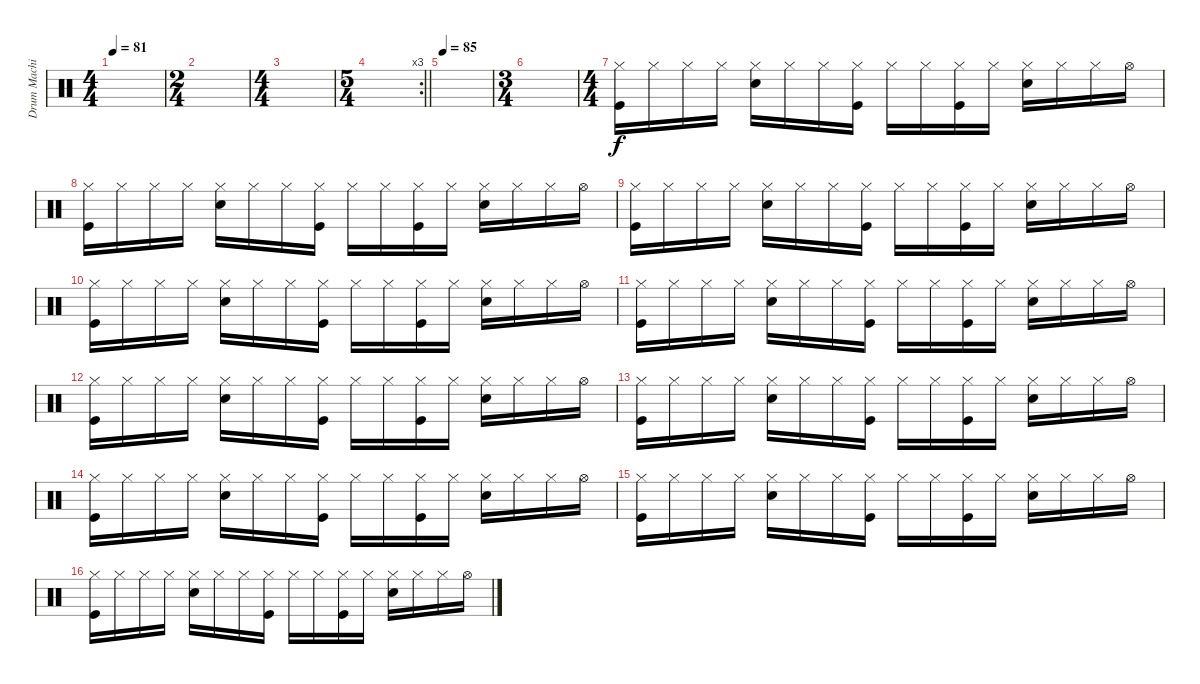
\track ("Drum Machine" "Drum Machi") {instrument percussion}
\staff {score}
\articulation defaults
\ts (4 4)
\tempo 81
\clef neutral
\ks c
|
\ts (2 4)
|
\ts (4 4)
|
\rc 3
\ts (5 4)
\barLineRight lightlight
|
\tempo 85
|
\ts (3 4)
|
\ts (4 4)
("Hi-Hat (closed)" "Kick (hit)").16 "Hi-Hat (closed)".16 "Hi-Hat (closed)".16 "Hi-Hat (closed)".16 ("Hi-Hat (closed)" "Snare (hit) 2").16 "Hi-Hat (closed)".16 "Hi-Hat (closed)".16 ("Hi-Hat (closed)" "Kick (hit)").16 "Hi-Hat (closed)".16 "Hi-Hat (closed)".16 ("Hi-Hat (closed)" "Kick (hit)").16 "Hi-Hat (closed)".16 ("Hi-Hat (closed)" "Snare (hit) 2").16 "Hi-Hat (closed)".16 "Hi-Hat (closed)".16 "Hi-Hat (open)".16 |
("Hi-Hat (closed)" "Kick (hit)").16 "Hi-Hat (closed)".16 "Hi-Hat (closed)".16 "Hi-Hat (closed)".16 ("Hi-Hat (closed)" "Snare (hit) 2").16 "Hi-Hat (closed)".16 "Hi-Hat (closed)".16 ("Hi-Hat (closed)" "Kick (hit)").16 "Hi-Hat (closed)".16 "Hi-Hat (closed)".16 ("Hi-Hat (closed)" "Kick (hit)").16 "Hi-Hat (closed)".16 ("Hi-Hat (closed)" "Snare (hit) 2").16 "Hi-Hat (closed)".16 "Hi-Hat (closed)".16 "Hi-Hat (open)".16 |
("Hi-Hat (closed)" "Kick (hit)").16 "Hi-Hat (closed)".16 "Hi-Hat (closed)".16 "Hi-Hat (closed)".16 ("Hi-Hat (closed)" "Snare (hit) 2").16 "Hi-Hat (closed)".16 "Hi-Hat (closed)".16 ("Hi-Hat (closed)" "Kick (hit)").16 "Hi-Hat (closed)".16 "Hi-Hat (closed)".16 ("Hi-Hat (closed)" "Kick (hit)").16 "Hi-Hat (closed)".16 ("Hi-Hat (closed)" "Snare (hit) 2").16 "Hi-Hat (closed)".16 "Hi-Hat (closed)".16 "Hi-Hat (open)".16 |
("Hi-Hat (closed)" "Kick (hit)").16 "Hi-Hat (closed)".16 "Hi-Hat (closed)".16 "Hi-Hat (closed)".16 ("Hi-Hat (closed)" "Snare (hit) 2").16 "Hi-Hat (closed)".16 "Hi-Hat (closed)".16 ("Hi-Hat (closed)" "Kick (hit)").16 "Hi-Hat (closed)".16 "Hi-Hat (closed)".16 ("Hi-Hat (closed)" "Kick (hit)").16 "Hi-Hat (closed)".16 ("Hi-Hat (closed)" "Snare (hit) 2").16 "Hi-Hat (closed)".16 "Hi-Hat (closed)".16 "Hi-Hat (open)".16 |
("Hi-Hat (closed)" "Kick (hit)").16 "Hi-Hat (closed)".16 "Hi-Hat (closed)".16 "Hi-Hat (closed)".16 ("Hi-Hat (closed)" "Snare (hit) 2").16 "Hi-Hat (closed)".16 "Hi-Hat (closed)".16 ("Hi-Hat (closed)" "Kick (hit)").16 "Hi-Hat (closed)".16 "Hi-Hat (closed)".16 ("Hi-Hat (closed)" "Kick (hit)").16 "Hi-Hat (closed)".16 ("Hi-Hat (closed)" "Snare (hit) 2").16 "Hi-Hat (closed)".16 "Hi-Hat (closed)".16 "Hi-Hat (open)".16 |
("Hi-Hat (closed)" "Kick (hit)").16 "Hi-Hat (closed)".16 "Hi-Hat (closed)".16 "Hi-Hat (closed)".16 ("Hi-Hat (closed)" "Snare (hit) 2").16 "Hi-Hat (closed)".16 "Hi-Hat (closed)".16 ("Hi-Hat (closed)" "Kick (hit)").16 "Hi-Hat (closed)".16 "Hi-Hat (closed)".16 ("Hi-Hat (closed)" "Kick (hit)").16 "Hi-Hat (closed)".16 ("Hi-Hat (closed)" "Snare (hit) 2").16 "Hi-Hat (closed)".16 "Hi-Hat (closed)".16 "Hi-Hat (open)".16 |
("Hi-Hat (closed)" "Kick (hit)").16 "Hi-Hat (closed)".16 "Hi-Hat (closed)".16 "Hi-Hat (closed)".16 ("Hi-Hat (closed)" "Snare (hit) 2").16 "Hi-Hat (closed)".16 "Hi-Hat (closed)".16 ("Hi-Hat (closed)" "Kick (hit)").16 "Hi-Hat (closed)".16 "Hi-Hat (closed)".16 ("Hi-Hat (closed)" "Kick (hit)").16 "Hi-Hat (closed)".16 ("Hi-Hat (closed)" "Snare (hit) 2").16 "Hi-Hat (closed)".16 "Hi-Hat (closed)".16 "Hi-Hat (open)".16 |
("Hi-Hat (closed)" "Kick (hit)").16 "Hi-Hat (closed)".16 "Hi-Hat (closed)".16 "Hi-Hat (closed)".16 ("Hi-Hat (closed)" "Snare (hit) 2").16 "Hi-Hat (closed)".16 "Hi-Hat (closed)".16 ("Hi-Hat (closed)" "Kick (hit)").16 "Hi-Hat (closed)".16 "Hi-Hat (closed)".16 ("Hi-Hat (closed)" "Kick (hit)").16 "Hi-Hat (closed)".16 ("Hi-Hat (closed)" "Snare (hit) 2").16 "Hi-Hat (closed)".16 "Hi-Hat (closed)".16 "Hi-Hat (open)".16 |
("Hi-Hat (closed)" "Kick (hit)").16 "Hi-Hat (closed)".16 "Hi-Hat (closed)".16 "Hi-Hat (closed)".16 ("Hi-Hat (closed)" "Snare (hit) 2").16 "Hi-Hat (closed)".16 "Hi-Hat (closed)".16 ("Hi-Hat (closed)" "Kick (hit)").16 "Hi-Hat (closed)".16 "Hi-Hat (closed)".16 ("Hi-Hat (closed)" "Kick (hit)").16 "Hi-Hat (closed)".16 ("Hi-Hat (closed)" "Snare (hit) 2").16 "Hi-Hat (closed)".16 "Hi-Hat (closed)".16 "Hi-Hat (open)".16 |
("Hi-Hat (closed)" "Kick (hit)").16 "Hi-Hat (closed)".16 "Hi-Hat (closed)".16 "Hi-Hat (closed)".16 ("Hi-Hat (closed)" "Snare (hit) 2").16 "Hi-Hat (closed)".16 "Hi-Hat (closed)".16 ("Hi-Hat (closed)" "Kick (hit)").16 "Hi-Hat (closed)".16 "Hi-Hat (closed)".16 ("Hi-Hat (closed)" "Kick (hit)").16 "Hi-Hat (closed)".16 ("Hi-Hat (closed)" "Snare (hit) 2").16 "Hi-Hat (closed)".16 "Hi-Hat (closed)".16 "Hi-Hat (open)".16
